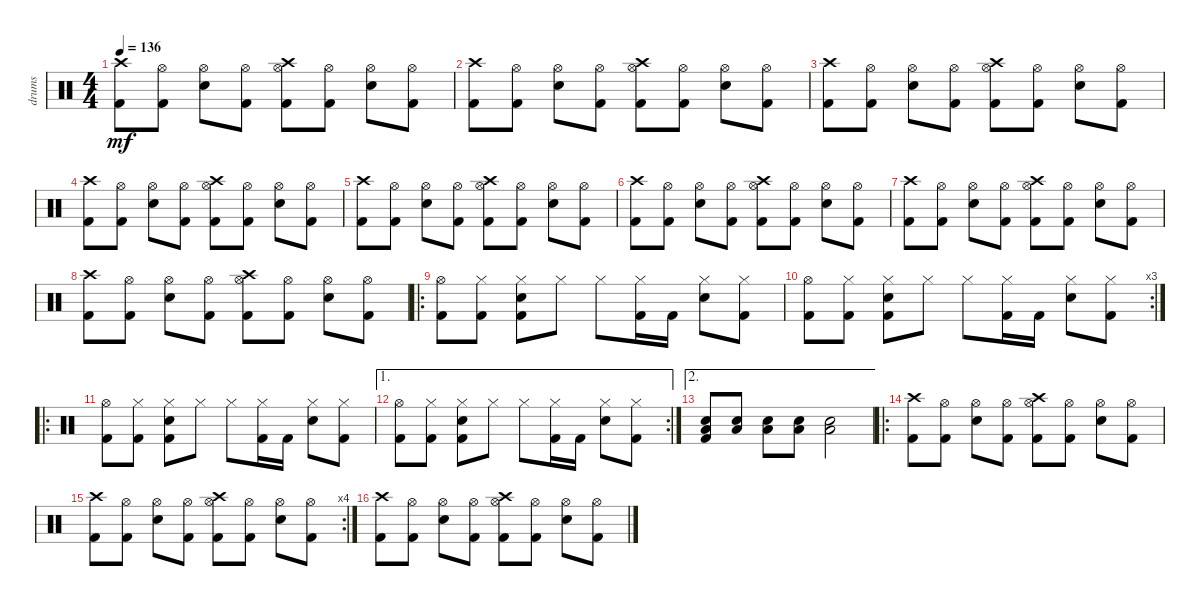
\track ("drums" "drums") {instrument percussion}
\staff {score}
\articulation defaults
\ts (4 4)
\tempo 136
\clef neutral
\ks c
("Crash high (hit)" "Kick (hit) 2").8{dy mf} ("Hi-Hat (open)" "Kick (hit) 2").8 ("Hi-Hat (open)" "Electric Snare (hit)").8 ("Hi-Hat (open)" "Kick (hit) 2").8 ("Crash high (hit)" "Hi-Hat (open)" "Kick (hit) 2").8 ("Hi-Hat (open)" "Kick (hit) 2").8 ("Hi-Hat (open)" "Electric Snare (hit)").8 ("Hi-Hat (open)" "Kick (hit) 2").8 |
("Crash high (hit)" "Kick (hit) 2").8 ("Hi-Hat (open)" "Kick (hit) 2").8 ("Hi-Hat (open)" "Electric Snare (hit)").8 ("Hi-Hat (open)" "Kick (hit) 2").8 ("Crash high (hit)" "Hi-Hat (open)" "Kick (hit) 2").8 ("Hi-Hat (open)" "Kick (hit) 2").8 ("Hi-Hat (open)" "Electric Snare (hit)").8 ("Hi-Hat (open)" "Kick (hit) 2").8 |
("Crash high (hit)" "Kick (hit) 2").8 ("Hi-Hat (open)" "Kick (hit) 2").8 ("Hi-Hat (open)" "Electric Snare (hit)").8 ("Hi-Hat (open)" "Kick (hit) 2").8 ("Crash high (hit)" "Hi-Hat (open)" "Kick (hit) 2").8 ("Hi-Hat (open)" "Kick (hit) 2").8 ("Hi-Hat (open)" "Electric Snare (hit)").8 ("Hi-Hat (open)" "Kick (hit) 2").8 |
("Crash high (hit)" "Kick (hit) 2").8 ("Hi-Hat (open)" "Kick (hit) 2").8 ("Hi-Hat (open)" "Electric Snare (hit)").8 ("Hi-Hat (open)" "Kick (hit) 2").8 ("Crash high (hit)" "Hi-Hat (open)" "Kick (hit) 2").8 ("Hi-Hat (open)" "Kick (hit) 2").8 ("Hi-Hat (open)" "Electric Snare (hit)").8 ("Hi-Hat (open)" "Kick (hit) 2").8 |
("Crash high (hit)" "Kick (hit) 2").8 ("Hi-Hat (open)" "Kick (hit) 2").8 ("Hi-Hat (open)" "Electric Snare (hit)").8 ("Hi-Hat (open)" "Kick (hit) 2").8 ("Crash high (hit)" "Hi-Hat (open)" "Kick (hit) 2").8 ("Hi-Hat (open)" "Kick (hit) 2").8 ("Hi-Hat (open)" "Electric Snare (hit)").8 ("Hi-Hat (open)" "Kick (hit) 2").8 |
("Crash high (hit)" "Kick (hit) 2").8 ("Hi-Hat (open)" "Kick (hit) 2").8 ("Hi-Hat (open)" "Electric Snare (hit)").8 ("Hi-Hat (open)" "Kick (hit) 2").8 ("Crash high (hit)" "Hi-Hat (open)" "Kick (hit) 2").8 ("Hi-Hat (open)" "Kick (hit) 2").8 ("Hi-Hat (open)" "Electric Snare (hit)").8 ("Hi-Hat (open)" "Kick (hit) 2").8 |
("Crash high (hit)" "Kick (hit) 2").8 ("Hi-Hat (open)" "Kick (hit) 2").8 ("Hi-Hat (open)" "Electric Snare (hit)").8 ("Hi-Hat (open)" "Kick (hit) 2").8 ("Crash high (hit)" "Hi-Hat (open)" "Kick (hit) 2").8 ("Hi-Hat (open)" "Kick (hit) 2").8 ("Hi-Hat (open)" "Electric Snare (hit)").8 ("Hi-Hat (open)" "Kick (hit) 2").8 |
("Crash high (hit)" "Kick (hit) 2").8 ("Hi-Hat (open)" "Kick (hit) 2").8 ("Hi-Hat (open)" "Electric Snare (hit)").8 ("Hi-Hat (open)" "Kick (hit) 2").8 ("Crash high (hit)" "Hi-Hat (open)" "Kick (hit) 2").8 ("Hi-Hat (open)" "Kick (hit) 2").8 ("Hi-Hat (open)" "Electric Snare (hit)").8 ("Hi-Hat (open)" "Kick (hit) 2").8 |
\ro
("Hi-Hat (open)" "Kick (hit) 2").8 ("Hi-Hat (closed)" "Kick (hit) 2").8 ("Hi-Hat (closed)" "Electric Snare (hit)" "Kick (hit) 2").8 "Hi-Hat (closed)".8 "Hi-Hat (closed)".8 ("Hi-Hat (closed)" "Kick (hit) 2").16 "Kick (hit) 2".16 ("Hi-Hat (closed)" "Electric Snare (hit)").8 ("Hi-Hat (closed)" "Kick (hit) 2").8 |
\rc 3
("Hi-Hat (open)" "Kick (hit) 2").8 ("Hi-Hat (closed)" "Kick (hit) 2").8 ("Hi-Hat (closed)" "Electric Snare (hit)" "Kick (hit) 2").8 "Hi-Hat (closed)".8 "Hi-Hat (closed)".8 ("Hi-Hat (closed)" "Kick (hit) 2").16 "Kick (hit) 2".16 ("Hi-Hat (closed)" "Electric Snare (hit)").8 ("Hi-Hat (closed)" "Kick (hit) 2").8 |
\ro
("Hi-Hat (open)" "Kick (hit) 2").8 ("Hi-Hat (closed)" "Kick (hit) 2").8 ("Hi-Hat (closed)" "Electric Snare (hit)" "Kick (hit) 2").8 "Hi-Hat (closed)".8 "Hi-Hat (closed)".8 ("Hi-Hat (closed)" "Kick (hit) 2").16 "Kick (hit) 2".16 ("Hi-Hat (closed)" "Electric Snare (hit)").8 ("Hi-Hat (closed)" "Kick (hit) 2").8 |
\ae 1
\rc 2
("Hi-Hat (open)" "Kick (hit) 2").8 ("Hi-Hat (closed)" "Kick (hit) 2").8 ("Hi-Hat (closed)" "Electric Snare (hit)" "Kick (hit) 2").8 "Hi-Hat (closed)".8 "Hi-Hat (closed)".8 ("Hi-Hat (closed)" "Kick (hit) 2").16 "Kick (hit) 2".16 ("Hi-Hat (closed)" "Electric Snare (hit)").8 ("Hi-Hat (closed)" "Kick (hit) 2").8 |
\ae 2
("Low Floor Tom (hit)" "Electric Snare (hit)" "Kick (hit) 2").8 ("Low Floor Tom (hit)" "Electric Snare (hit)").8 ("Low Floor Tom (hit)" "Electric Snare (hit)").8 ("Low Floor Tom (hit)" "Electric Snare (hit)").8 ("Low Floor Tom (hit)" "Electric Snare (hit)").2 |
\ro
("Crash high (hit)" "Kick (hit) 2").8 ("Hi-Hat (open)" "Kick (hit) 2").8 ("Hi-Hat (open)" "Electric Snare (hit)").8 ("Hi-Hat (open)" "Kick (hit) 2").8 ("Crash high (hit)" "Hi-Hat (open)" "Kick (hit) 2").8 ("Hi-Hat (open)" "Kick (hit) 2").8 ("Hi-Hat (open)" "Electric Snare (hit)").8 ("Hi-Hat (open)" "Kick (hit) 2").8 |
\rc 4
("Crash high (hit)" "Kick (hit) 2").8 ("Hi-Hat (open)" "Kick (hit) 2").8 ("Hi-Hat (open)" "Electric Snare (hit)").8 ("Hi-Hat (open)" "Kick (hit) 2").8 ("Crash high (hit)" "Hi-Hat (open)" "Kick (hit) 2").8 ("Hi-Hat (open)" "Kick (hit) 2").8 ("Hi-Hat (open)" "Electric Snare (hit)").8 ("Hi-Hat (open)" "Kick (hit) 2").8 |
("Crash high (hit)" "Kick (hit) 2").8 ("Hi-Hat (open)" "Kick (hit) 2").8 ("Hi-Hat (open)" "Electric Snare (hit)").8 ("Hi-Hat (open)" "Kick (hit) 2").8 ("Crash high (hit)" "Hi-Hat (open)" "Kick (hit) 2").8 ("Hi-Hat (open)" "Kick (hit) 2").8 ("Hi-Hat (open)" "Electric Snare (hit)").8 ("Hi-Hat (open)" "Kick (hit) 2").8
